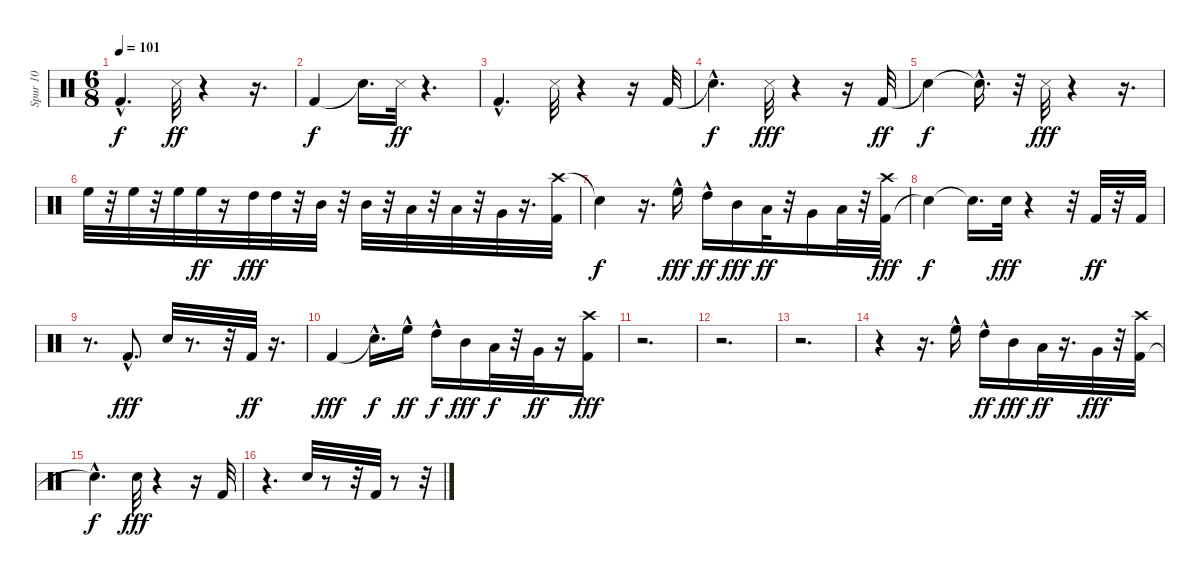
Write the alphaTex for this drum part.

\track ("Spur 10" "Spur 10") {instrument percussion}
\staff {score}
\articulation defaults
\ts (6 8)
\tempo 101
\clef neutral
\ks c "Kick (hit) 2"{hac}.4{d dy f} "Snare (side stick) 3".32{dy ff}
r.4 r.16{d} |
"Kick (hit) 2".4{dy f} "Snare (hit)"{t}.16{d} "Snare (side stick) 3".32{dy ff} r.4{d} |
"Kick (hit) 2"{hac}.4{d} "Snare (side stick) 3".32 r.4 r.16 "Kick (hit) 2".32 |
"Snare (hit)"{hac t}.4{d dy f} "Snare (side stick) 3".32{dy fff} r.4 r.16 "Kick (hit) 2".32{dy ff} |
"Snare (hit)"{t}.4{dy f} "Snare (hit)"{hac t}.16{d} r.32 "Snare (side stick) 3".32{dy fff} r.4 r.16{d} |
"High Floor Tom (hit)".32 r.32 "High Floor Tom (hit)".32 r.32 "High Floor Tom (hit)".32 "High Floor Tom (hit)".32{dy ff} r.16 "High Tom (hit)".32{dy fff} "High Tom (hit)".32 r.32 "Mid Tom (hit)".32 r.32 "Mid Tom (hit)".32 r.32 "Low Tom (hit)".32 r.32 "Low Tom (hit)".32 r.32 "Very Low Tom (hit)".32 r.16{d} ("Crash high (hit)" "Kick (hit) 2").32 |
"Snare (hit)"{t}.4{dy f} r.16{d} "High Floor Tom (hit)"{hac}.16{dy fff} "High Tom (hit)"{hac}.16{dy ff} "Mid Tom (hit)".16{dy fff} "Low Tom (hit)".32{dy ff} r.32 "Very Low Tom (hit)".16 "Low Floor Tom (hit)".32 r.32 ("Kick (hit) 2" "Crash high (hit)").32{dy fff} |
"Snare (hit)"{t}.4{dy f} "Snare (hit)"{t}.16{d} "Electric Snare (hit)".32{dy fff} r.4 r.32 "Kick (hit) 2".32{dy ff} r.32 "Kick (hit) 2".32 |
r.8{d} "Kick (hit) 2"{hac}.8{d dy fff} "Electric Snare (hit)".32 r.8{d} r.32 "Kick (hit) 2".32{dy ff} r.16{d} |
"Kick (hit) 2".4{dy fff} "Snare (hit)"{hac t}.16{d dy f} "High Floor Tom (hit)"{hac}.16{dy ff} "High Tom (hit)"{hac}.16{dy f} "Mid Tom (hit)".16{dy fff} "Low Tom (hit)".32{dy f} r.32 "Very Low Tom (hit)".32{dy ff} r.16 ("Crash high (hit)" "Kick (hit) 2").16{dy fff} |
r.2{d} |
r.2{d} |
r.2{d} |
r.4 r.16{d} "High Floor Tom (hit)"{hac}.16 "High Tom (hit)"{hac}.16{dy ff} "Mid Tom (hit)".16{dy fff} "Low Tom (hit)".32{dy ff} r.16{d} "Very Low Tom (hit)".32{dy fff} r.32 ("Kick (hit) 2" "Crash high (hit)").32 |
"Snare (hit)"{hac t}.4{d dy f} "Electric Snare (hit)".32{dy fff} r.4 r.16 "Kick (hit) 2".32 |
r.4{d} "Electric Snare (hit)".32 r.8 r.32 "Kick (hit) 2".32 r.8 r.32
